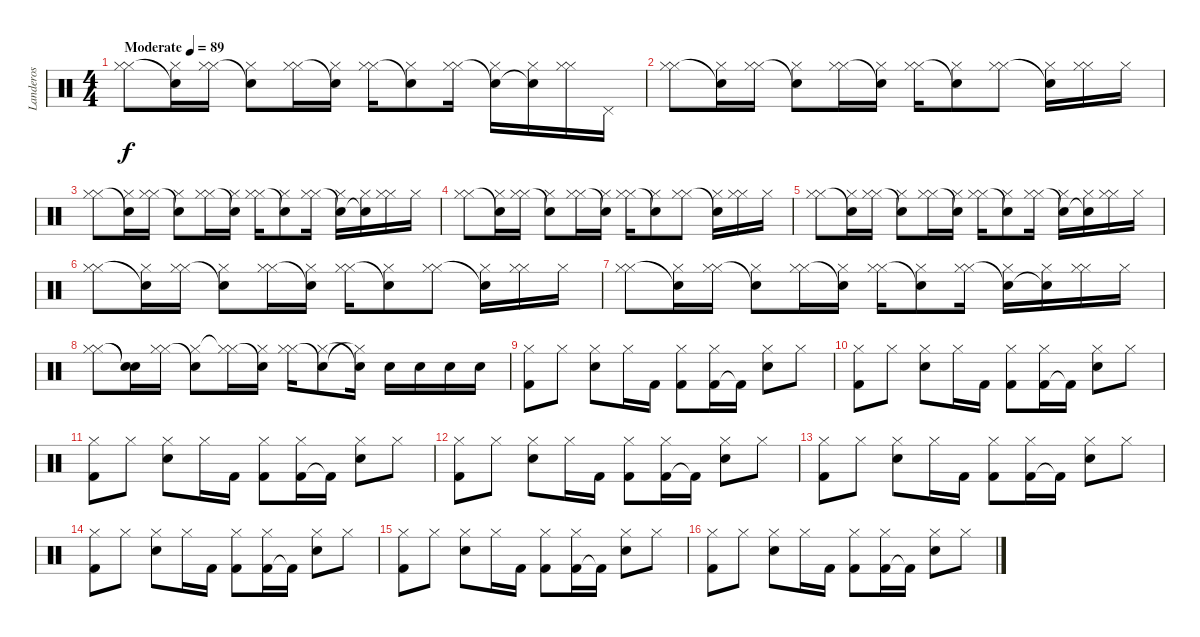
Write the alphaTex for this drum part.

\track ("Landeros" "Landeros") {instrument percussion}
\staff {score}
\articulation defaults
\ts (4 4)
\tempo (89 "Moderate")
\clef neutral
\ks c
("Hi-Hat (closed)" "Hi-Hat (closed)").8{dy f} ("Snare (hit)"{t} "Hi-Hat (closed)").16 ("Hi-Hat (closed)" "Hi-Hat (closed)").16 ("Snare (hit)"{t} "Hi-Hat (closed)").8 ("Hi-Hat (closed)" "Hi-Hat (closed)").16 ("Snare (hit)"{t} "Hi-Hat (closed)").16 ("Hi-Hat (closed)" "Hi-Hat (closed)").16 ("Snare (hit)"{t} "Hi-Hat (closed)").8 ("Hi-Hat (closed)" "Hi-Hat (closed)").16 ("Snare (hit)"{t} "Hi-Hat (closed)").16 ("Snare (hit)"{t} "Hi-Hat (closed)").16 ("Hi-Hat (closed)" "Hi-Hat (closed)").16 "Pedal Hi-Hat (hit)".16 |
("Hi-Hat (closed)" "Hi-Hat (closed)").8 ("Snare (hit)"{t} "Hi-Hat (closed)").16 ("Hi-Hat (closed)" "Hi-Hat (closed)").16 ("Snare (hit)"{t} "Hi-Hat (closed)").8 ("Hi-Hat (closed)" "Hi-Hat (closed)").16 ("Snare (hit)"{t} "Hi-Hat (closed)").16 ("Hi-Hat (closed)" "Hi-Hat (closed)").16 ("Snare (hit)"{t} "Hi-Hat (closed)").8 ("Hi-Hat (closed)" "Hi-Hat (closed)").8 ("Snare (hit)"{t} "Hi-Hat (closed)").16 ("Hi-Hat (closed)" "Hi-Hat (closed)").16 "Hi-Hat (closed)".16 |
("Hi-Hat (closed)" "Hi-Hat (closed)").8 ("Snare (hit)"{t} "Hi-Hat (closed)").16 ("Hi-Hat (closed)" "Hi-Hat (closed)").16 ("Snare (hit)"{t} "Hi-Hat (closed)").8 ("Hi-Hat (closed)" "Hi-Hat (closed)").16 ("Snare (hit)"{t} "Hi-Hat (closed)").16 ("Hi-Hat (closed)" "Hi-Hat (closed)").16 ("Snare (hit)"{t} "Hi-Hat (closed)").8 ("Hi-Hat (closed)" "Hi-Hat (closed)").16 ("Snare (hit)"{t} "Hi-Hat (closed)").16 ("Snare (hit)"{t} "Hi-Hat (closed)").16 ("Hi-Hat (closed)" "Hi-Hat (closed)").16 "Hi-Hat (closed)".16 |
("Hi-Hat (closed)" "Hi-Hat (closed)").8 ("Snare (hit)"{t} "Hi-Hat (closed)").16 ("Hi-Hat (closed)" "Hi-Hat (closed)").16 ("Snare (hit)"{t} "Hi-Hat (closed)").8 ("Hi-Hat (closed)" "Hi-Hat (closed)").16 ("Snare (hit)"{t} "Hi-Hat (closed)").16 ("Hi-Hat (closed)" "Hi-Hat (closed)").16 ("Snare (hit)"{t} "Hi-Hat (closed)").8 ("Hi-Hat (closed)" "Hi-Hat (closed)").8 ("Snare (hit)"{t} "Hi-Hat (closed)").16 ("Hi-Hat (closed)" "Hi-Hat (closed)").16 "Hi-Hat (closed)".16 |
("Hi-Hat (closed)" "Hi-Hat (closed)").8 ("Snare (hit)"{t} "Hi-Hat (closed)").16 ("Hi-Hat (closed)" "Hi-Hat (closed)").16 ("Snare (hit)"{t} "Hi-Hat (closed)").8 ("Hi-Hat (closed)" "Hi-Hat (closed)").16 ("Snare (hit)"{t} "Hi-Hat (closed)").16 ("Hi-Hat (closed)" "Hi-Hat (closed)").16 ("Snare (hit)"{t} "Hi-Hat (closed)").8 ("Hi-Hat (closed)" "Hi-Hat (closed)").16 ("Snare (hit)"{t} "Hi-Hat (closed)").16 ("Snare (hit)"{t} "Hi-Hat (closed)").16 ("Hi-Hat (closed)" "Hi-Hat (closed)").16 "Hi-Hat (closed)".16 |
("Hi-Hat (closed)" "Hi-Hat (closed)").8 ("Snare (hit)"{t} "Hi-Hat (closed)").16 ("Hi-Hat (closed)" "Hi-Hat (closed)").16 ("Snare (hit)"{t} "Hi-Hat (closed)").8 ("Hi-Hat (closed)" "Hi-Hat (closed)").16 ("Snare (hit)"{t} "Hi-Hat (closed)").16 ("Hi-Hat (closed)" "Hi-Hat (closed)").16 ("Snare (hit)"{t} "Hi-Hat (closed)").8 ("Hi-Hat (closed)" "Hi-Hat (closed)").8 ("Snare (hit)"{t} "Hi-Hat (closed)").16 ("Hi-Hat (closed)" "Hi-Hat (closed)").16 "Hi-Hat (closed)".16 |
("Hi-Hat (closed)" "Hi-Hat (closed)").8 ("Snare (hit)"{t} "Hi-Hat (closed)").16 ("Hi-Hat (closed)" "Hi-Hat (closed)").16 ("Snare (hit)"{t} "Hi-Hat (closed)").8 ("Hi-Hat (closed)" "Hi-Hat (closed)").16 ("Snare (hit)"{t} "Hi-Hat (closed)").16 ("Hi-Hat (closed)" "Hi-Hat (closed)").16 ("Snare (hit)"{t} "Hi-Hat (closed)").8 ("Hi-Hat (closed)" "Hi-Hat (closed)").16 ("Snare (hit)"{t} "Hi-Hat (closed)").16 ("Snare (hit)"{t} "Hi-Hat (closed)").16 ("Hi-Hat (closed)" "Hi-Hat (closed)").16 "Hi-Hat (closed)".16 |
("Hi-Hat (closed)" "Hi-Hat (closed)").8 ("Snare (hit)"{t} "Snare (hit)"{t}).16 ("Hi-Hat (closed)" "Hi-Hat (closed)").16 ("Snare (hit)"{t} "Hi-Hat (closed)").8 ("Hi-Hat (closed)" "Hi-Hat (closed)"{t}).16 ("Snare (hit)"{t} "Hi-Hat (closed)").16 ("Hi-Hat (closed)" "Hi-Hat (closed)").16 ("Snare (hit)"{t} "Hi-Hat (closed)").8 ("Hi-Hat (closed)"{t} "Snare (hit)"{t}).16 "Electric Snare (hit)".16 "Electric Snare (hit)".16 "Electric Snare (hit)".16 "Electric Snare (hit)".16 |
("Kick (hit) 2" "Hi-Hat (closed)").8 "Hi-Hat (closed)".8 ("Electric Snare (hit)" "Hi-Hat (closed)").8 "Hi-Hat (closed)".16 "Kick (hit) 2".16 ("Kick (hit) 2" "Hi-Hat (closed)").8 ("Kick (hit) 2" "Hi-Hat (closed)").16 "Kick (hit) 2"{t}.16 ("Electric Snare (hit)" "Hi-Hat (closed)").8 "Hi-Hat (closed)".8 |
("Kick (hit) 2" "Hi-Hat (closed)").8 "Hi-Hat (closed)".8 ("Electric Snare (hit)" "Hi-Hat (closed)").8 "Hi-Hat (closed)".16 "Kick (hit) 2".16 ("Kick (hit) 2" "Hi-Hat (closed)").8 ("Kick (hit) 2" "Hi-Hat (closed)").16 "Kick (hit) 2"{t}.16 ("Electric Snare (hit)" "Hi-Hat (closed)").8 "Hi-Hat (closed)".8 |
("Kick (hit) 2" "Hi-Hat (closed)").8 "Hi-Hat (closed)".8 ("Electric Snare (hit)" "Hi-Hat (closed)").8 "Hi-Hat (closed)".16 "Kick (hit) 2".16 ("Kick (hit) 2" "Hi-Hat (closed)").8 ("Kick (hit) 2" "Hi-Hat (closed)").16 "Kick (hit) 2"{t}.16 ("Electric Snare (hit)" "Hi-Hat (closed)").8 "Hi-Hat (closed)".8 |
("Kick (hit) 2" "Hi-Hat (closed)").8 "Hi-Hat (closed)".8 ("Electric Snare (hit)" "Hi-Hat (closed)").8 "Hi-Hat (closed)".16 "Kick (hit) 2".16 ("Kick (hit) 2" "Hi-Hat (closed)").8 ("Kick (hit) 2" "Hi-Hat (closed)").16 "Kick (hit) 2"{t}.16 ("Electric Snare (hit)" "Hi-Hat (closed)").8 "Hi-Hat (closed)".8 |
("Kick (hit) 2" "Hi-Hat (closed)").8 "Hi-Hat (closed)".8 ("Electric Snare (hit)" "Hi-Hat (closed)").8 "Hi-Hat (closed)".16 "Kick (hit) 2".16 ("Kick (hit) 2" "Hi-Hat (closed)").8 ("Kick (hit) 2" "Hi-Hat (closed)").16 "Kick (hit) 2"{t}.16 ("Electric Snare (hit)" "Hi-Hat (closed)").8 "Hi-Hat (closed)".8 |
("Kick (hit) 2" "Hi-Hat (closed)").8 "Hi-Hat (closed)".8 ("Electric Snare (hit)" "Hi-Hat (closed)").8 "Hi-Hat (closed)".16 "Kick (hit) 2".16 ("Kick (hit) 2" "Hi-Hat (closed)").8 ("Kick (hit) 2" "Hi-Hat (closed)").16 "Kick (hit) 2"{t}.16 ("Electric Snare (hit)" "Hi-Hat (closed)").8 "Hi-Hat (closed)".8 |
("Kick (hit) 2" "Hi-Hat (closed)").8 "Hi-Hat (closed)".8 ("Electric Snare (hit)" "Hi-Hat (closed)").8 "Hi-Hat (closed)".16 "Kick (hit) 2".16 ("Kick (hit) 2" "Hi-Hat (closed)").8 ("Kick (hit) 2" "Hi-Hat (closed)").16 "Kick (hit) 2"{t}.16 ("Electric Snare (hit)" "Hi-Hat (closed)").8 "Hi-Hat (closed)".8 |
("Kick (hit) 2" "Hi-Hat (closed)").8 "Hi-Hat (closed)".8 ("Electric Snare (hit)" "Hi-Hat (closed)").8 "Hi-Hat (closed)".16 "Kick (hit) 2".16 ("Kick (hit) 2" "Hi-Hat (closed)").8 ("Kick (hit) 2" "Hi-Hat (closed)").16 "Kick (hit) 2"{t}.16 ("Electric Snare (hit)" "Hi-Hat (closed)").8 "Hi-Hat (closed)".8
